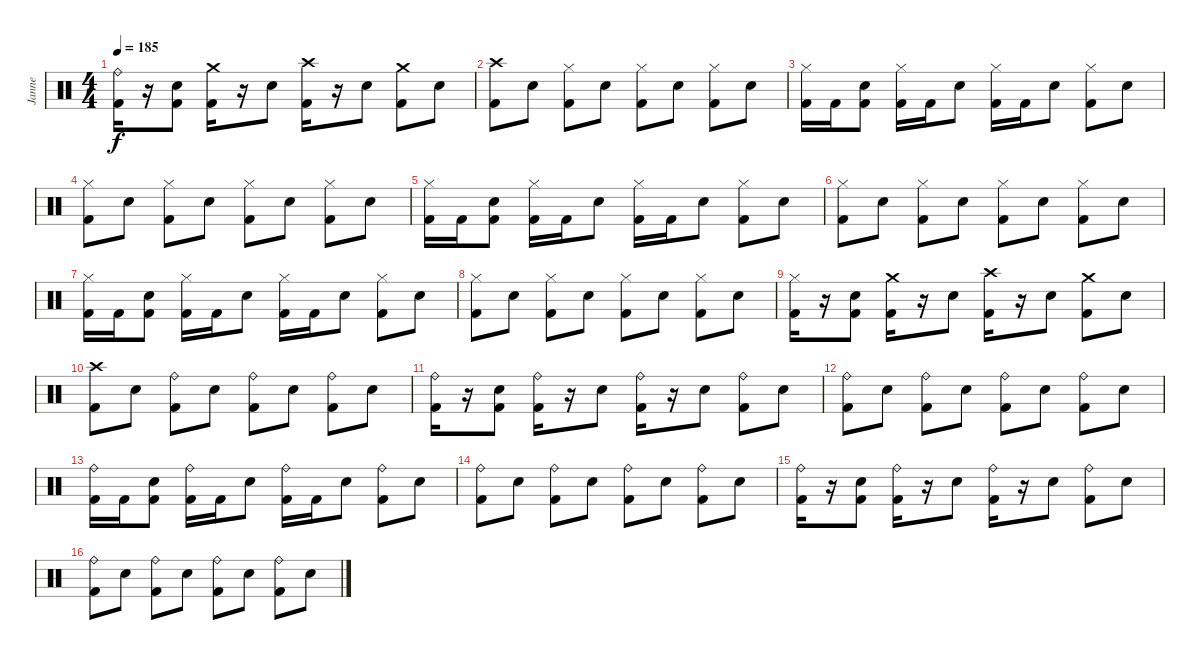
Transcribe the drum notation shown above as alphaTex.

\track ("Janne" "Janne") {instrument percussion}
\staff {score}
\articulation defaults
\ts (4 4)
\tempo 185
\clef neutral
\ks c
("Ride (bell)" "Kick (hit) 2").16{dy f} r.16 ("Electric Snare (hit)" "Kick (hit) 2").8 ("Crash medium (hit)" "Kick (hit) 2").16 r.16 "Electric Snare (hit)".8 ("Crash high (hit)" "Kick (hit) 2").16 r.16 "Electric Snare (hit)".8 ("Crash medium (hit)" "Kick (hit) 2").8 "Electric Snare (hit)".8 |
("Crash high (hit)" "Kick (hit) 2").8 "Electric Snare (hit)".8 ("Hi-Hat (closed)" "Kick (hit) 2").8 "Electric Snare (hit)".8 ("Hi-Hat (closed)" "Kick (hit) 2").8 "Electric Snare (hit)".8 ("Hi-Hat (closed)" "Kick (hit) 2").8 "Electric Snare (hit)".8 |
("Hi-Hat (closed)" "Kick (hit) 2").16 "Kick (hit) 2".16 ("Electric Snare (hit)" "Kick (hit) 2").8 ("Hi-Hat (closed)" "Kick (hit) 2").16 "Kick (hit) 2".16 "Electric Snare (hit)".8 ("Hi-Hat (closed)" "Kick (hit) 2").16 "Kick (hit) 2".16 "Electric Snare (hit)".8 ("Hi-Hat (closed)" "Kick (hit) 2").8 "Electric Snare (hit)".8 |
("Hi-Hat (closed)" "Kick (hit) 2").8 "Electric Snare (hit)".8 ("Hi-Hat (closed)" "Kick (hit) 2").8 "Electric Snare (hit)".8 ("Hi-Hat (closed)" "Kick (hit) 2").8 "Electric Snare (hit)".8 ("Hi-Hat (closed)" "Kick (hit) 2").8 "Electric Snare (hit)".8 |
("Hi-Hat (closed)" "Kick (hit) 2").16 "Kick (hit) 2".16 ("Electric Snare (hit)" "Kick (hit) 2").8 ("Hi-Hat (closed)" "Kick (hit) 2").16 "Kick (hit) 2".16 "Electric Snare (hit)".8 ("Hi-Hat (closed)" "Kick (hit) 2").16 "Kick (hit) 2".16 "Electric Snare (hit)".8 ("Hi-Hat (closed)" "Kick (hit) 2").8 "Electric Snare (hit)".8 |
("Hi-Hat (closed)" "Kick (hit) 2").8 "Electric Snare (hit)".8 ("Hi-Hat (closed)" "Kick (hit) 2").8 "Electric Snare (hit)".8 ("Hi-Hat (closed)" "Kick (hit) 2").8 "Electric Snare (hit)".8 ("Hi-Hat (closed)" "Kick (hit) 2").8 "Electric Snare (hit)".8 |
("Hi-Hat (closed)" "Kick (hit) 2").16 "Kick (hit) 2".16 ("Electric Snare (hit)" "Kick (hit) 2").8 ("Hi-Hat (closed)" "Kick (hit) 2").16 "Kick (hit) 2".16 "Electric Snare (hit)".8 ("Hi-Hat (closed)" "Kick (hit) 2").16 "Kick (hit) 2".16 "Electric Snare (hit)".8 ("Hi-Hat (closed)" "Kick (hit) 2").8 "Electric Snare (hit)".8 |
("Hi-Hat (closed)" "Kick (hit) 2").8 "Electric Snare (hit)".8 ("Hi-Hat (closed)" "Kick (hit) 2").8 "Electric Snare (hit)".8 ("Hi-Hat (closed)" "Kick (hit) 2").8 "Electric Snare (hit)".8 ("Hi-Hat (closed)" "Kick (hit) 2").8 "Electric Snare (hit)".8 |
("Hi-Hat (closed)" "Kick (hit) 2").16 r.16 ("Electric Snare (hit)" "Kick (hit) 2").8 ("Crash medium (hit)" "Kick (hit) 2").16 r.16 "Electric Snare (hit)".8 ("Crash high (hit)" "Kick (hit) 2").16 r.16 "Electric Snare (hit)".8 ("Crash medium (hit)" "Kick (hit) 2").8 "Electric Snare (hit)".8 |
("Crash high (hit)" "Kick (hit) 2").8 "Electric Snare (hit)".8 ("Ride (bell)" "Kick (hit) 2").8 "Electric Snare (hit)".8 ("Ride (bell)" "Kick (hit) 2").8 "Electric Snare (hit)".8 ("Ride (bell)" "Kick (hit) 2").8 "Electric Snare (hit)".8 |
("Ride (bell)" "Kick (hit) 2").16 r.16 ("Electric Snare (hit)" "Kick (hit) 2").8 ("Ride (bell)" "Kick (hit) 2").16 r.16 "Electric Snare (hit)".8 ("Ride (bell)" "Kick (hit) 2").16 r.16 "Electric Snare (hit)".8 ("Ride (bell)" "Kick (hit) 2").8 "Electric Snare (hit)".8 |
("Ride (bell)" "Kick (hit) 2").8 "Electric Snare (hit)".8 ("Ride (bell)" "Kick (hit) 2").8 "Electric Snare (hit)".8 ("Ride (bell)" "Kick (hit) 2").8 "Electric Snare (hit)".8 ("Ride (bell)" "Kick (hit) 2").8 "Electric Snare (hit)".8 |
("Ride (bell)" "Kick (hit) 2").16 "Kick (hit) 2".16 ("Electric Snare (hit)" "Kick (hit) 2").8 ("Ride (bell)" "Kick (hit) 2").16 "Kick (hit) 2".16 "Electric Snare (hit)".8 ("Ride (bell)" "Kick (hit) 2").16 "Kick (hit) 2".16 "Electric Snare (hit)".8 ("Ride (bell)" "Kick (hit) 2").8 "Electric Snare (hit)".8 |
("Ride (bell)" "Kick (hit) 2").8 "Electric Snare (hit)".8 ("Ride (bell)" "Kick (hit) 2").8 "Electric Snare (hit)".8 ("Ride (bell)" "Kick (hit) 2").8 "Electric Snare (hit)".8 ("Ride (bell)" "Kick (hit) 2").8 "Electric Snare (hit)".8 |
("Ride (bell)" "Kick (hit) 2").16 r.16 ("Electric Snare (hit)" "Kick (hit) 2").8 ("Ride (bell)" "Kick (hit) 2").16 r.16 "Electric Snare (hit)".8 ("Ride (bell)" "Kick (hit) 2").16 r.16 "Electric Snare (hit)".8 ("Ride (bell)" "Kick (hit) 2").8 "Electric Snare (hit)".8 |
("Ride (bell)" "Kick (hit) 2").8 "Electric Snare (hit)".8 ("Ride (bell)" "Kick (hit) 2").8 "Electric Snare (hit)".8 ("Ride (bell)" "Kick (hit) 2").8 "Electric Snare (hit)".8 ("Ride (bell)" "Kick (hit) 2").8 "Electric Snare (hit)".8
